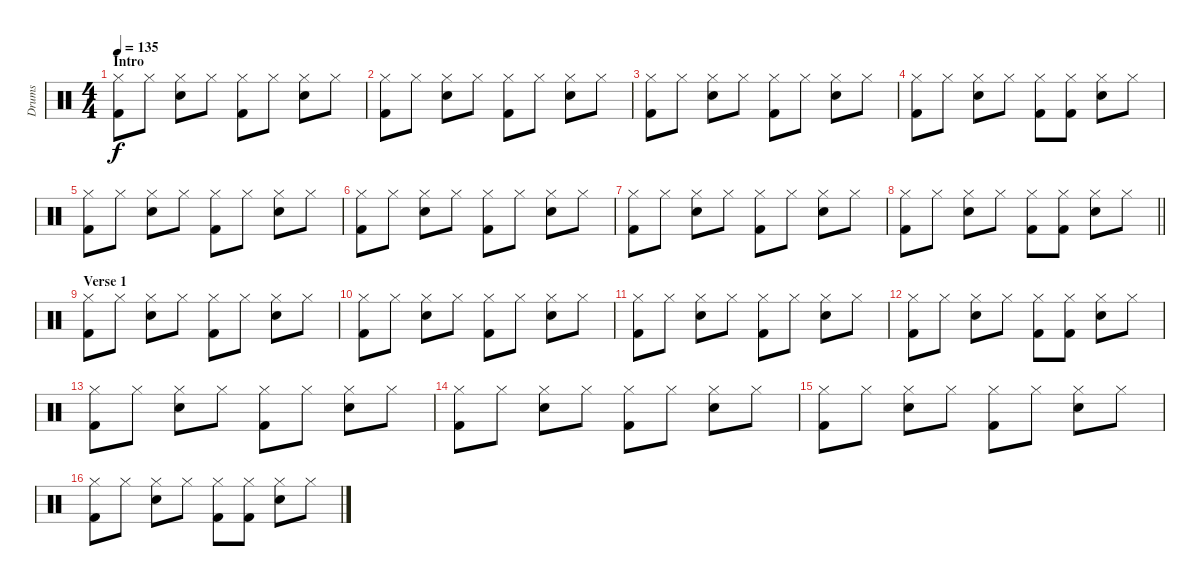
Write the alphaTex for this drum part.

\track ("Drums" "Drums") {instrument percussion}
\staff {score}
\articulation defaults
\ts (4 4)
\section ("" "Intro")
\tempo 135
\clef neutral
\ks c
("Hi-Hat (closed)" "Kick (hit) 2").8{dy f} "Hi-Hat (closed)".8 ("Hi-Hat (closed)" "Electric Snare (hit)").8 "Hi-Hat (closed)".8 ("Hi-Hat (closed)" "Kick (hit) 2").8 "Hi-Hat (closed)".8 ("Hi-Hat (closed)" "Electric Snare (hit)").8 "Hi-Hat (closed)".8 |
("Hi-Hat (closed)" "Kick (hit) 2").8 "Hi-Hat (closed)".8 ("Hi-Hat (closed)" "Electric Snare (hit)").8 "Hi-Hat (closed)".8 ("Hi-Hat (closed)" "Kick (hit) 2").8 "Hi-Hat (closed)".8 ("Hi-Hat (closed)" "Electric Snare (hit)").8 "Hi-Hat (closed)".8 |
("Hi-Hat (closed)" "Kick (hit) 2").8 "Hi-Hat (closed)".8 ("Hi-Hat (closed)" "Electric Snare (hit)").8 "Hi-Hat (closed)".8 ("Hi-Hat (closed)" "Kick (hit) 2").8 "Hi-Hat (closed)".8 ("Hi-Hat (closed)" "Electric Snare (hit)").8 "Hi-Hat (closed)".8 |
("Hi-Hat (closed)" "Kick (hit) 2").8 "Hi-Hat (closed)".8 ("Hi-Hat (closed)" "Electric Snare (hit)").8 "Hi-Hat (closed)".8 ("Hi-Hat (closed)" "Kick (hit) 2").8 ("Hi-Hat (closed)" "Kick (hit) 2").8 ("Hi-Hat (closed)" "Electric Snare (hit)").8 "Hi-Hat (closed)".8 |
("Hi-Hat (closed)" "Kick (hit) 2").8 "Hi-Hat (closed)".8 ("Hi-Hat (closed)" "Electric Snare (hit)").8 "Hi-Hat (closed)".8 ("Hi-Hat (closed)" "Kick (hit) 2").8 "Hi-Hat (closed)".8 ("Hi-Hat (closed)" "Electric Snare (hit)").8 "Hi-Hat (closed)".8 |
("Hi-Hat (closed)" "Kick (hit) 2").8 "Hi-Hat (closed)".8 ("Hi-Hat (closed)" "Electric Snare (hit)").8 "Hi-Hat (closed)".8 ("Hi-Hat (closed)" "Kick (hit) 2").8 "Hi-Hat (closed)".8 ("Hi-Hat (closed)" "Electric Snare (hit)").8 "Hi-Hat (closed)".8 |
("Hi-Hat (closed)" "Kick (hit) 2").8 "Hi-Hat (closed)".8 ("Hi-Hat (closed)" "Electric Snare (hit)").8 "Hi-Hat (closed)".8 ("Hi-Hat (closed)" "Kick (hit) 2").8 "Hi-Hat (closed)".8 ("Hi-Hat (closed)" "Electric Snare (hit)").8 "Hi-Hat (closed)".8 |
\barLineRight lightlight
("Hi-Hat (closed)" "Kick (hit) 2").8 "Hi-Hat (closed)".8 ("Hi-Hat (closed)" "Electric Snare (hit)").8 "Hi-Hat (closed)".8 ("Hi-Hat (closed)" "Kick (hit) 2").8 ("Hi-Hat (closed)" "Kick (hit) 2").8 ("Hi-Hat (closed)" "Electric Snare (hit)").8 "Hi-Hat (closed)".8 |
\section ("" "Verse 1")
("Hi-Hat (closed)" "Kick (hit) 2").8 "Hi-Hat (closed)".8 ("Hi-Hat (closed)" "Electric Snare (hit)").8 "Hi-Hat (closed)".8 ("Hi-Hat (closed)" "Kick (hit) 2").8 "Hi-Hat (closed)".8 ("Hi-Hat (closed)" "Electric Snare (hit)").8 "Hi-Hat (closed)".8 |
("Hi-Hat (closed)" "Kick (hit) 2").8 "Hi-Hat (closed)".8 ("Hi-Hat (closed)" "Electric Snare (hit)").8 "Hi-Hat (closed)".8 ("Hi-Hat (closed)" "Kick (hit) 2").8 "Hi-Hat (closed)".8 ("Hi-Hat (closed)" "Electric Snare (hit)").8 "Hi-Hat (closed)".8 |
("Hi-Hat (closed)" "Kick (hit) 2").8 "Hi-Hat (closed)".8 ("Hi-Hat (closed)" "Electric Snare (hit)").8 "Hi-Hat (closed)".8 ("Hi-Hat (closed)" "Kick (hit) 2").8 "Hi-Hat (closed)".8 ("Hi-Hat (closed)" "Electric Snare (hit)").8 "Hi-Hat (closed)".8 |
("Hi-Hat (closed)" "Kick (hit) 2").8 "Hi-Hat (closed)".8 ("Hi-Hat (closed)" "Electric Snare (hit)").8 "Hi-Hat (closed)".8 ("Hi-Hat (closed)" "Kick (hit) 2").8 ("Hi-Hat (closed)" "Kick (hit) 2").8 ("Hi-Hat (closed)" "Electric Snare (hit)").8 "Hi-Hat (closed)".8 |
("Hi-Hat (closed)" "Kick (hit) 2").8 "Hi-Hat (closed)".8 ("Hi-Hat (closed)" "Electric Snare (hit)").8 "Hi-Hat (closed)".8 ("Hi-Hat (closed)" "Kick (hit) 2").8 "Hi-Hat (closed)".8 ("Hi-Hat (closed)" "Electric Snare (hit)").8 "Hi-Hat (closed)".8 |
("Hi-Hat (closed)" "Kick (hit) 2").8 "Hi-Hat (closed)".8 ("Hi-Hat (closed)" "Electric Snare (hit)").8 "Hi-Hat (closed)".8 ("Hi-Hat (closed)" "Kick (hit) 2").8 "Hi-Hat (closed)".8 ("Hi-Hat (closed)" "Electric Snare (hit)").8 "Hi-Hat (closed)".8 |
("Hi-Hat (closed)" "Kick (hit) 2").8 "Hi-Hat (closed)".8 ("Hi-Hat (closed)" "Electric Snare (hit)").8 "Hi-Hat (closed)".8 ("Hi-Hat (closed)" "Kick (hit) 2").8 "Hi-Hat (closed)".8 ("Hi-Hat (closed)" "Electric Snare (hit)").8 "Hi-Hat (closed)".8 |
("Hi-Hat (closed)" "Kick (hit) 2").8 "Hi-Hat (closed)".8 ("Hi-Hat (closed)" "Electric Snare (hit)").8 "Hi-Hat (closed)".8 ("Hi-Hat (closed)" "Kick (hit) 2").8 ("Hi-Hat (closed)" "Kick (hit) 2").8 ("Hi-Hat (closed)" "Electric Snare (hit)").8 "Hi-Hat (closed)".8
